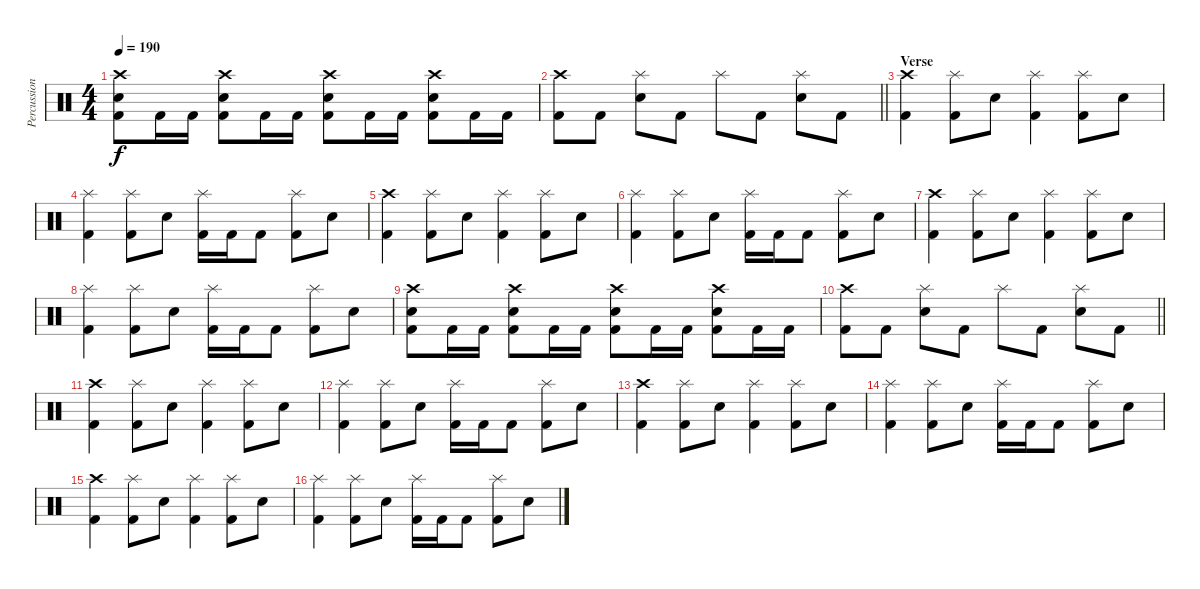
\track ("Percussion" "Percussion") {instrument percussion}
\staff {score}
\articulation defaults
\ts (4 4)
\tempo 190
\clef neutral
\ks c
("Crash high (hit)" "Snare (hit) 2" "Kick (hit) 2").8{dy f} "Kick (hit) 2".16 "Kick (hit) 2".16 ("Crash high (hit)" "Snare (hit) 2" "Kick (hit) 2").8 "Kick (hit) 2".16 "Kick (hit) 2".16 ("Crash high (hit)" "Snare (hit) 2" "Kick (hit) 2").8 "Kick (hit) 2".16 "Kick (hit) 2".16 ("Crash high (hit)" "Snare (hit) 2" "Kick (hit) 2").8 "Kick (hit) 2".16 "Kick (hit) 2".16 |
\barLineRight lightlight
("Crash high (hit)" "Kick (hit) 2").8 "Kick (hit) 2".8 ("Splash (hit)" "Snare (hit) 2").8 "Kick (hit) 2".8 "Splash (hit)".8 "Kick (hit) 2".8 ("Splash (hit)" "Snare (hit) 2").8 "Kick (hit) 2".8 |
\section ("" "Verse")
("Crash high (hit)" "Kick (hit) 2").4 ("Splash (hit)" "Kick (hit) 2").8 "Snare (hit) 2".8 ("Splash (hit)" "Kick (hit) 2").4 ("Splash (hit)" "Kick (hit) 2").8 "Snare (hit) 2".8 |
("Splash (hit)" "Kick (hit) 2").4 ("Splash (hit)" "Kick (hit) 2").8 "Snare (hit) 2".8 ("Splash (hit)" "Kick (hit) 2").16 "Kick (hit) 2".16 "Kick (hit) 2".8 ("Splash (hit)" "Kick (hit) 2").8 "Snare (hit) 2".8 |
("Crash high (hit)" "Kick (hit) 2").4 ("Splash (hit)" "Kick (hit) 2").8 "Snare (hit) 2".8 ("Splash (hit)" "Kick (hit) 2").4 ("Splash (hit)" "Kick (hit) 2").8 "Snare (hit) 2".8 |
("Splash (hit)" "Kick (hit) 2").4 ("Splash (hit)" "Kick (hit) 2").8 "Snare (hit) 2".8 ("Splash (hit)" "Kick (hit) 2").16 "Kick (hit) 2".16 "Kick (hit) 2".8 ("Splash (hit)" "Kick (hit) 2").8 "Snare (hit) 2".8 |
("Crash high (hit)" "Kick (hit) 2").4 ("Splash (hit)" "Kick (hit) 2").8 "Snare (hit) 2".8 ("Splash (hit)" "Kick (hit) 2").4 ("Splash (hit)" "Kick (hit) 2").8 "Snare (hit) 2".8 |
("Splash (hit)" "Kick (hit) 2").4 ("Splash (hit)" "Kick (hit) 2").8 "Snare (hit) 2".8 ("Splash (hit)" "Kick (hit) 2").16 "Kick (hit) 2".16 "Kick (hit) 2".8 ("Splash (hit)" "Kick (hit) 2").8 "Snare (hit) 2".8 |
("Crash high (hit)" "Snare (hit) 2" "Kick (hit) 2").8 "Kick (hit) 2".16 "Kick (hit) 2".16 ("Crash high (hit)" "Snare (hit) 2" "Kick (hit) 2").8 "Kick (hit) 2".16 "Kick (hit) 2".16 ("Crash high (hit)" "Snare (hit) 2" "Kick (hit) 2").8 "Kick (hit) 2".16 "Kick (hit) 2".16 ("Crash high (hit)" "Snare (hit) 2" "Kick (hit) 2").8 "Kick (hit) 2".16 "Kick (hit) 2".16 |
\barLineRight lightlight
("Crash high (hit)" "Kick (hit) 2").8 "Kick (hit) 2".8 ("Splash (hit)" "Snare (hit) 2").8 "Kick (hit) 2".8 "Splash (hit)".8 "Kick (hit) 2".8 ("Splash (hit)" "Snare (hit) 2").8 "Kick (hit) 2".8 |
("Crash high (hit)" "Kick (hit) 2").4 ("Splash (hit)" "Kick (hit) 2").8 "Snare (hit) 2".8 ("Splash (hit)" "Kick (hit) 2").4 ("Splash (hit)" "Kick (hit) 2").8 "Snare (hit) 2".8 |
("Splash (hit)" "Kick (hit) 2").4 ("Splash (hit)" "Kick (hit) 2").8 "Snare (hit) 2".8 ("Splash (hit)" "Kick (hit) 2").16 "Kick (hit) 2".16 "Kick (hit) 2".8 ("Splash (hit)" "Kick (hit) 2").8 "Snare (hit) 2".8 |
("Crash high (hit)" "Kick (hit) 2").4 ("Splash (hit)" "Kick (hit) 2").8 "Snare (hit) 2".8 ("Splash (hit)" "Kick (hit) 2").4 ("Splash (hit)" "Kick (hit) 2").8 "Snare (hit) 2".8 |
("Splash (hit)" "Kick (hit) 2").4 ("Splash (hit)" "Kick (hit) 2").8 "Snare (hit) 2".8 ("Splash (hit)" "Kick (hit) 2").16 "Kick (hit) 2".16 "Kick (hit) 2".8 ("Splash (hit)" "Kick (hit) 2").8 "Snare (hit) 2".8 |
("Crash high (hit)" "Kick (hit) 2").4 ("Splash (hit)" "Kick (hit) 2").8 "Snare (hit) 2".8 ("Splash (hit)" "Kick (hit) 2").4 ("Splash (hit)" "Kick (hit) 2").8 "Snare (hit) 2".8 |
("Splash (hit)" "Kick (hit) 2").4 ("Splash (hit)" "Kick (hit) 2").8 "Snare (hit) 2".8 ("Splash (hit)" "Kick (hit) 2").16 "Kick (hit) 2".16 "Kick (hit) 2".8 ("Splash (hit)" "Kick (hit) 2").8 "Snare (hit) 2".8
